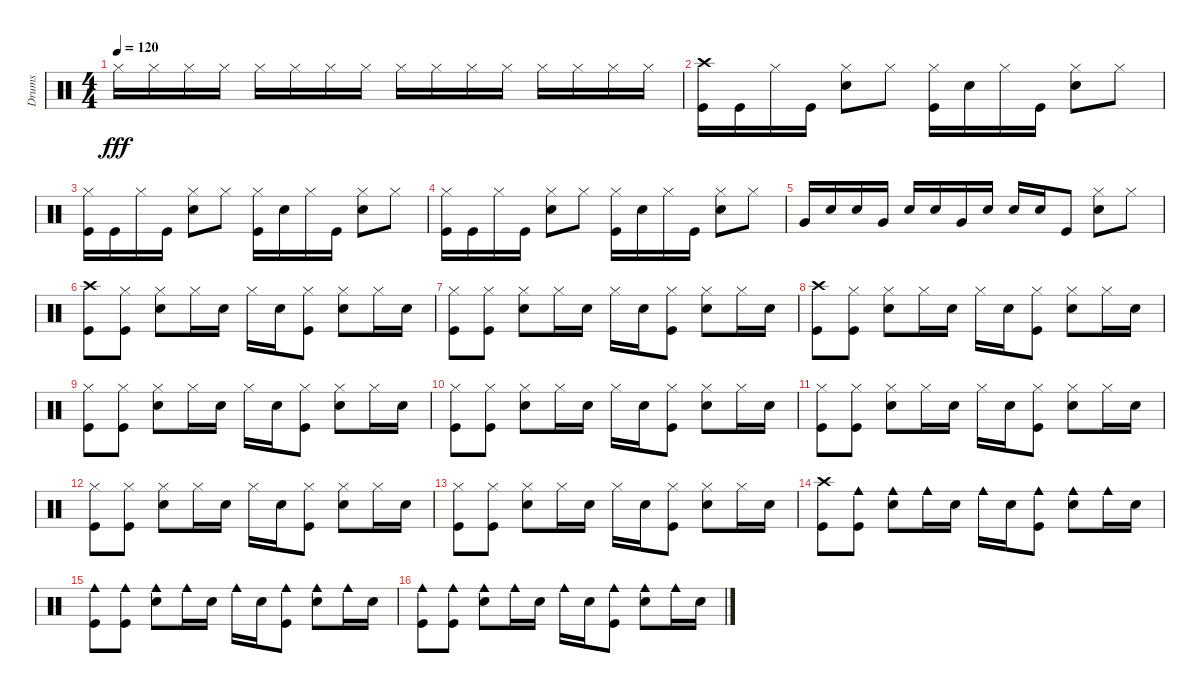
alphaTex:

\track ("Drums" "Drums") {instrument percussion}
\staff {score}
\articulation defaults
\ts (4 4)
\tempo 120
\clef neutral
\ks c "Hi-Hat (closed)".16{dy fff} "Hi-Hat (closed)".16 "Hi-Hat (closed)".16 "Hi-Hat (closed)".16 "Hi-Hat (closed)".16 "Hi-Hat (closed)".16 "Hi-Hat (closed)".16 "Hi-Hat (closed)".16 "Hi-Hat (closed)".16 "Hi-Hat (closed)".16 "Hi-Hat (closed)".16 "Hi-Hat (closed)".16 "Hi-Hat (closed)".16 "Hi-Hat (closed)".16 "Hi-Hat (closed)".16 "Hi-Hat (closed)".16
|
("Crash high (hit)" "Kick (hit)").16 "Kick (hit)".16 "Hi-Hat (closed)".16 "Kick (hit)".16 ("Hi-Hat (closed)" "Snare (hit) 2").8 "Hi-Hat (closed)".8 ("Hi-Hat (closed)" "Kick (hit)").16 "Snare (hit) 2".16 "Hi-Hat (closed)".16 "Kick (hit)".16 ("Hi-Hat (closed)" "Snare (hit) 2").8 "Hi-Hat (closed)".8 |
("Hi-Hat (closed)" "Kick (hit)").16 "Kick (hit)".16 "Hi-Hat (closed)".16 "Kick (hit)".16 ("Hi-Hat (closed)" "Snare (hit) 2").8 "Hi-Hat (closed)".8 ("Hi-Hat (closed)" "Kick (hit)").16 "Snare (hit) 2".16 "Hi-Hat (closed)".16 "Kick (hit)".16 ("Hi-Hat (closed)" "Snare (hit) 2").8 "Hi-Hat (closed)".8 |
("Hi-Hat (closed)" "Kick (hit)").16 "Kick (hit)".16 "Hi-Hat (closed)".16 "Kick (hit)".16 ("Hi-Hat (closed)" "Snare (hit) 2").8 "Hi-Hat (closed)".8 ("Hi-Hat (closed)" "Kick (hit)").16 "Snare (hit) 2".16 "Hi-Hat (closed)".16 "Kick (hit)".16 ("Hi-Hat (closed)" "Snare (hit) 2").8 "Hi-Hat (closed)".8 |
"Very Low Tom (hit)".16 "Snare (hit) 2".16 "Snare (hit) 2".16 "Very Low Tom (hit)".16 "Snare (hit) 2".16 "Snare (hit) 2".16 "Very Low Tom (hit)".16 "Snare (hit) 2".16 "Snare (hit) 2".16 "Snare (hit) 2".16 "Kick (hit)".8 ("Hi-Hat (closed)" "Snare (hit) 2").8 "Hi-Hat (closed)".8 |
("Crash high (hit)" "Kick (hit)").8 ("Hi-Hat (closed)" "Kick (hit)").8 ("Hi-Hat (closed)" "Snare (hit) 2").8 "Hi-Hat (closed)".16 "Snare (hit) 2".16 "Hi-Hat (closed)".16 "Snare (hit) 2".16 ("Hi-Hat (closed)" "Kick (hit)").8 ("Hi-Hat (closed)" "Snare (hit) 2").8 "Hi-Hat (closed)".16 "Snare (hit) 2".16 |
("Hi-Hat (closed)" "Kick (hit)").8 ("Hi-Hat (closed)" "Kick (hit)").8 ("Hi-Hat (closed)" "Snare (hit) 2").8 "Hi-Hat (closed)".16 "Snare (hit) 2".16 "Hi-Hat (closed)".16 "Snare (hit) 2".16 ("Hi-Hat (closed)" "Kick (hit)").8 ("Hi-Hat (closed)" "Snare (hit) 2").8 "Hi-Hat (closed)".16 "Snare (hit) 2".16 |
("Crash high (hit)" "Kick (hit)").8 ("Hi-Hat (closed)" "Kick (hit)").8 ("Hi-Hat (closed)" "Snare (hit) 2").8 "Hi-Hat (closed)".16 "Snare (hit) 2".16 "Hi-Hat (closed)".16 "Snare (hit) 2".16 ("Hi-Hat (closed)" "Kick (hit)").8 ("Hi-Hat (closed)" "Snare (hit) 2").8 "Hi-Hat (closed)".16 "Snare (hit) 2".16 |
("Hi-Hat (closed)" "Kick (hit)").8 ("Hi-Hat (closed)" "Kick (hit)").8 ("Hi-Hat (closed)" "Snare (hit) 2").8 "Hi-Hat (closed)".16 "Snare (hit) 2".16 "Hi-Hat (closed)".16 "Snare (hit) 2".16 ("Hi-Hat (closed)" "Kick (hit)").8 ("Hi-Hat (closed)" "Snare (hit) 2").8 "Hi-Hat (closed)".16 "Snare (hit) 2".16 |
("Hi-Hat (closed)" "Kick (hit)").8 ("Hi-Hat (closed)" "Kick (hit)").8 ("Hi-Hat (closed)" "Snare (hit) 2").8 "Hi-Hat (closed)".16 "Snare (hit) 2".16 "Hi-Hat (closed)".16 "Snare (hit) 2".16 ("Hi-Hat (closed)" "Kick (hit)").8 ("Hi-Hat (closed)" "Snare (hit) 2").8 "Hi-Hat (closed)".16 "Snare (hit) 2".16 |
("Hi-Hat (closed)" "Kick (hit)").8 ("Hi-Hat (closed)" "Kick (hit)").8 ("Hi-Hat (closed)" "Snare (hit) 2").8 "Hi-Hat (closed)".16 "Snare (hit) 2".16 "Hi-Hat (closed)".16 "Snare (hit) 2".16 ("Hi-Hat (closed)" "Kick (hit)").8 ("Hi-Hat (closed)" "Snare (hit) 2").8 "Hi-Hat (closed)".16 "Snare (hit) 2".16 |
("Hi-Hat (closed)" "Kick (hit)").8 ("Hi-Hat (closed)" "Kick (hit)").8 ("Hi-Hat (closed)" "Snare (hit) 2").8 "Hi-Hat (closed)".16 "Snare (hit) 2".16 "Hi-Hat (closed)".16 "Snare (hit) 2".16 ("Hi-Hat (closed)" "Kick (hit)").8 ("Hi-Hat (closed)" "Snare (hit) 2").8 "Hi-Hat (closed)".16 "Snare (hit) 2".16 |
("Hi-Hat (closed)" "Kick (hit)").8 ("Hi-Hat (closed)" "Kick (hit)").8 ("Hi-Hat (closed)" "Snare (hit) 2").8 "Hi-Hat (closed)".16 "Snare (hit) 2".16 "Hi-Hat (closed)".16 "Snare (hit) 2".16 ("Hi-Hat (closed)" "Kick (hit)").8 ("Hi-Hat (closed)" "Snare (hit) 2").8 "Hi-Hat (closed)".16 "Snare (hit) 2".16 |
("Crash high (hit)" "Kick (hit)").8 ("Cowbell medium (hit)" "Kick (hit)").8 ("Cowbell medium (hit)" "Snare (hit) 2").8 "Cowbell medium (hit)".16 "Snare (hit) 2".16 "Cowbell medium (hit)".16 "Snare (hit) 2".16 ("Cowbell medium (hit)" "Kick (hit)").8 ("Cowbell medium (hit)" "Snare (hit) 2").8 "Cowbell medium (hit)".16 "Snare (hit) 2".16 |
("Cowbell medium (hit)" "Kick (hit)").8 ("Cowbell medium (hit)" "Kick (hit)").8 ("Cowbell medium (hit)" "Snare (hit) 2").8 "Cowbell medium (hit)".16 "Snare (hit) 2".16 "Cowbell medium (hit)".16 "Snare (hit) 2".16 ("Cowbell medium (hit)" "Kick (hit)").8 ("Cowbell medium (hit)" "Snare (hit) 2").8 "Cowbell medium (hit)".16 "Snare (hit) 2".16 |
("Cowbell medium (hit)" "Kick (hit)").8 ("Cowbell medium (hit)" "Kick (hit)").8 ("Cowbell medium (hit)" "Snare (hit) 2").8 "Cowbell medium (hit)".16 "Snare (hit) 2".16 "Cowbell medium (hit)".16 "Snare (hit) 2".16 ("Cowbell medium (hit)" "Kick (hit)").8 ("Cowbell medium (hit)" "Snare (hit) 2").8 "Cowbell medium (hit)".16 "Snare (hit) 2".16
